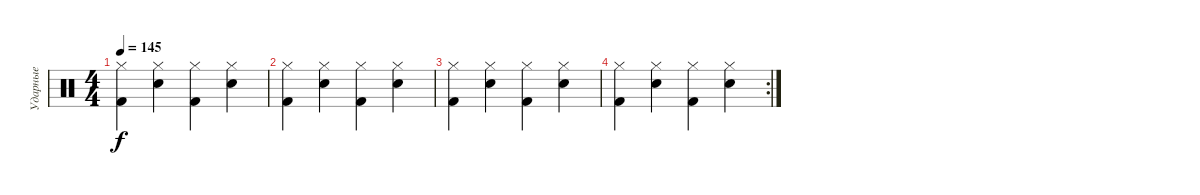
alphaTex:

\track ("Ударные" "Ударные") {solo instrument percussion}
\staff {score}
\articulation defaults
\ts (4 4)
\tempo 145
\clef neutral
\ks c
("Hi-Hat (closed)" "Kick (hit) 2").4{dy f} ("Hi-Hat (closed)" "Snare (hit) 2").4 ("Hi-Hat (closed)" "Kick (hit) 2").4 ("Hi-Hat (closed)" "Snare (hit) 2").4 |
("Hi-Hat (closed)" "Kick (hit) 2").4 ("Hi-Hat (closed)" "Snare (hit) 2").4 ("Hi-Hat (closed)" "Kick (hit) 2").4 ("Hi-Hat (closed)" "Snare (hit) 2").4 |
("Hi-Hat (closed)" "Kick (hit) 2").4 ("Hi-Hat (closed)" "Snare (hit) 2").4 ("Hi-Hat (closed)" "Kick (hit) 2").4 ("Hi-Hat (closed)" "Snare (hit) 2").4 |
\rc 2
("Hi-Hat (closed)" "Kick (hit) 2").4 ("Hi-Hat (closed)" "Snare (hit) 2").4 ("Hi-Hat (closed)" "Kick (hit) 2").4 ("Hi-Hat (closed)" "Snare (hit) 2").4
